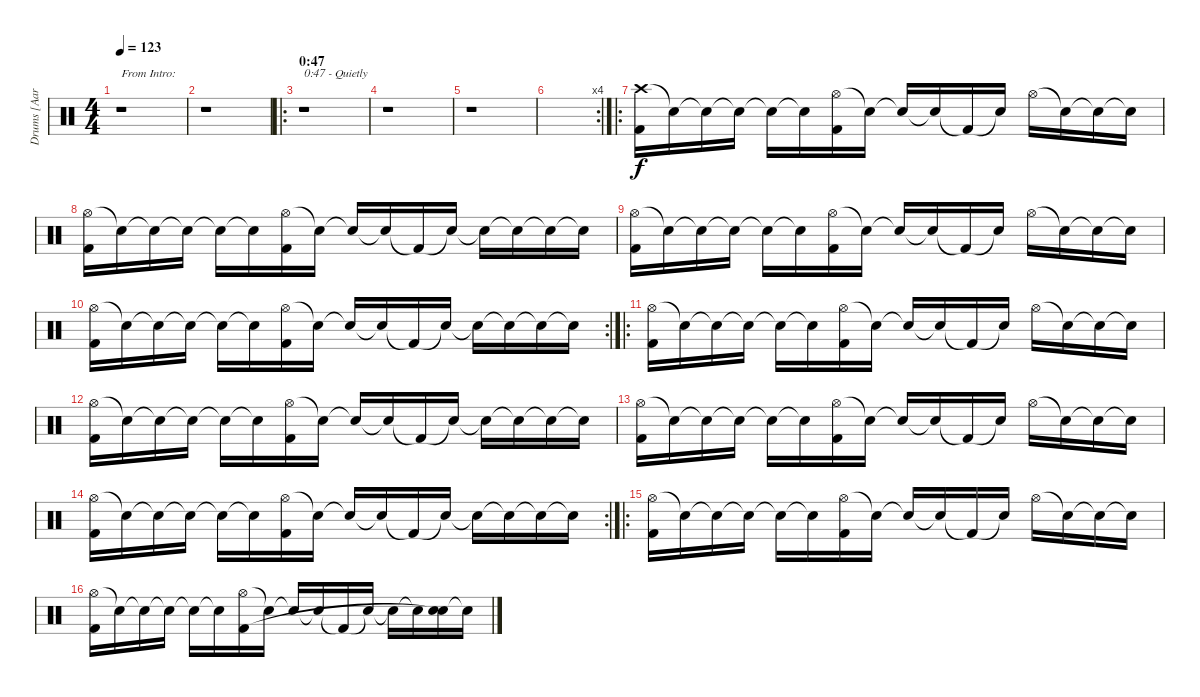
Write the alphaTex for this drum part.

\track ("Drums [Aaron Harris]" "Drums [Aar") {instrument percussion}
\staff {score}
\articulation defaults
\ts (4 4)
\section ("" "")
\tempo 123
\clef neutral
\ks c
r.1{txt "From Intro:" dy f} |
r.1 |
\ro
\section ("" "0:47")
r.1{txt "0:47 - Quietly"} |
r.1 |
r.1 |
\rc 4
|
\ro
("Crash high (hit)" "Kick (hit) 2").16 "Snare (hit)"{t}.16 "Snare (hit)"{t}.16 "Snare (hit)"{t}.16 "Snare (hit)"{t}.16 "Snare (hit)"{t}.16 ("Hi-Hat (open)" "Kick (hit) 2").16 "Snare (hit)"{t}.16 "Snare (hit)"{t}.16 "Snare (hit)"{t}.16 "Kick (hit) 2"{t}.16 "Snare (hit)"{t}.16 "Hi-Hat (open)".16 "Snare (hit)"{t}.16 "Snare (hit)"{t}.16 "Snare (hit)"{t}.16 |
("Hi-Hat (open)" "Kick (hit) 2").16 "Snare (hit)"{t}.16 "Snare (hit)"{t}.16 "Snare (hit)"{t}.16 "Snare (hit)"{t}.16 "Snare (hit)"{t}.16 ("Hi-Hat (open)" "Kick (hit) 2").16 "Snare (hit)"{t}.16 "Snare (hit)"{t}.16 "Snare (hit)"{t}.16 "Kick (hit) 2"{t}.16 "Snare (hit)"{t}.16 "Snare (hit)"{t}.16 "Snare (hit)"{t}.16 "Snare (hit)"{t}.16 "Snare (hit)"{t}.16 |
("Hi-Hat (open)" "Kick (hit) 2").16 "Snare (hit)"{t}.16 "Snare (hit)"{t}.16 "Snare (hit)"{t}.16 "Snare (hit)"{t}.16 "Snare (hit)"{t}.16 ("Hi-Hat (open)" "Kick (hit) 2").16 "Snare (hit)"{t}.16 "Snare (hit)"{t}.16 "Snare (hit)"{t}.16 "Kick (hit) 2"{t}.16 "Snare (hit)"{t}.16 "Hi-Hat (open)".16 "Snare (hit)"{t}.16 "Snare (hit)"{t}.16 "Snare (hit)"{t}.16 |
\rc 2
("Hi-Hat (open)" "Kick (hit) 2").16 "Snare (hit)"{t}.16 "Snare (hit)"{t}.16 "Snare (hit)"{t}.16 "Snare (hit)"{t}.16 "Snare (hit)"{t}.16 ("Hi-Hat (open)" "Kick (hit) 2").16 "Snare (hit)"{t}.16 "Snare (hit)"{t}.16 "Snare (hit)"{t}.16 "Kick (hit) 2"{t}.16 "Snare (hit)"{t}.16 "Snare (hit)"{t}.16 "Snare (hit)"{t}.16 "Snare (hit)"{t}.16 "Snare (hit)"{t}.16 |
\ro
("Hi-Hat (open)" "Kick (hit) 2").16 "Snare (hit)"{t}.16 "Snare (hit)"{t}.16 "Snare (hit)"{t}.16 "Snare (hit)"{t}.16 "Snare (hit)"{t}.16 ("Hi-Hat (open)" "Kick (hit) 2").16 "Snare (hit)"{t}.16 "Snare (hit)"{t}.16 "Snare (hit)"{t}.16 "Kick (hit) 2"{t}.16 "Snare (hit)"{t}.16 "Hi-Hat (open)".16 "Snare (hit)"{t}.16 "Snare (hit)"{t}.16 "Snare (hit)"{t}.16 |
("Hi-Hat (open)" "Kick (hit) 2").16 "Snare (hit)"{t}.16 "Snare (hit)"{t}.16 "Snare (hit)"{t}.16 "Snare (hit)"{t}.16 "Snare (hit)"{t}.16 ("Hi-Hat (open)" "Kick (hit) 2").16 "Snare (hit)"{t}.16 "Snare (hit)"{t}.16 "Snare (hit)"{t}.16 "Kick (hit) 2"{t}.16 "Snare (hit)"{t}.16 "Snare (hit)"{t}.16 "Snare (hit)"{t}.16 "Snare (hit)"{t}.16 "Snare (hit)"{t}.16 |
("Hi-Hat (open)" "Kick (hit) 2").16 "Snare (hit)"{t}.16 "Snare (hit)"{t}.16 "Snare (hit)"{t}.16 "Snare (hit)"{t}.16 "Snare (hit)"{t}.16 ("Hi-Hat (open)" "Kick (hit) 2").16 "Snare (hit)"{t}.16 "Snare (hit)"{t}.16 "Snare (hit)"{t}.16 "Kick (hit) 2"{t}.16 "Snare (hit)"{t}.16 "Hi-Hat (open)".16 "Snare (hit)"{t}.16 "Snare (hit)"{t}.16 "Snare (hit)"{t}.16 |
\rc 2
("Hi-Hat (open)" "Kick (hit) 2").16 "Snare (hit)"{t}.16 "Snare (hit)"{t}.16 "Snare (hit)"{t}.16 "Snare (hit)"{t}.16 "Snare (hit)"{t}.16 ("Hi-Hat (open)" "Kick (hit) 2").16 "Snare (hit)"{t}.16 "Snare (hit)"{t}.16 "Snare (hit)"{t}.16 "Kick (hit) 2"{t}.16 "Snare (hit)"{t}.16 "Snare (hit)"{t}.16 "Snare (hit)"{t}.16 "Snare (hit)"{t}.16 "Snare (hit)"{t}.16 |
\ro
("Hi-Hat (open)" "Kick (hit) 2").16 "Snare (hit)"{t}.16 "Snare (hit)"{t}.16 "Snare (hit)"{t}.16 "Snare (hit)"{t}.16 "Snare (hit)"{t}.16 ("Hi-Hat (open)" "Kick (hit) 2").16 "Snare (hit)"{t}.16 "Snare (hit)"{t}.16 "Snare (hit)"{t}.16 "Kick (hit) 2"{t}.16 "Snare (hit)"{t}.16 "Hi-Hat (open)".16 "Snare (hit)"{t}.16 "Snare (hit)"{t}.16 "Snare (hit)"{t}.16 |
("Hi-Hat (open)" "Kick (hit) 2").16 "Snare (hit)"{t}.16 "Snare (hit)"{t}.16 "Snare (hit)"{t}.16 "Snare (hit)"{t}.16 "Snare (hit)"{t}.16 ("Hi-Hat (open)" "Kick (hit) 2").16 "Snare (hit)"{t}.16 "Snare (hit)"{t}.16 "Snare (hit)"{t}.16 "Kick (hit) 2"{t}.16 "Snare (hit)"{t}.16 "Snare (hit)"{t}.16 "Snare (hit)"{t}.16 ("Electric Snare (hit)" "Snare (hit)"{t}).16 "Snare (hit)"{t}.16
